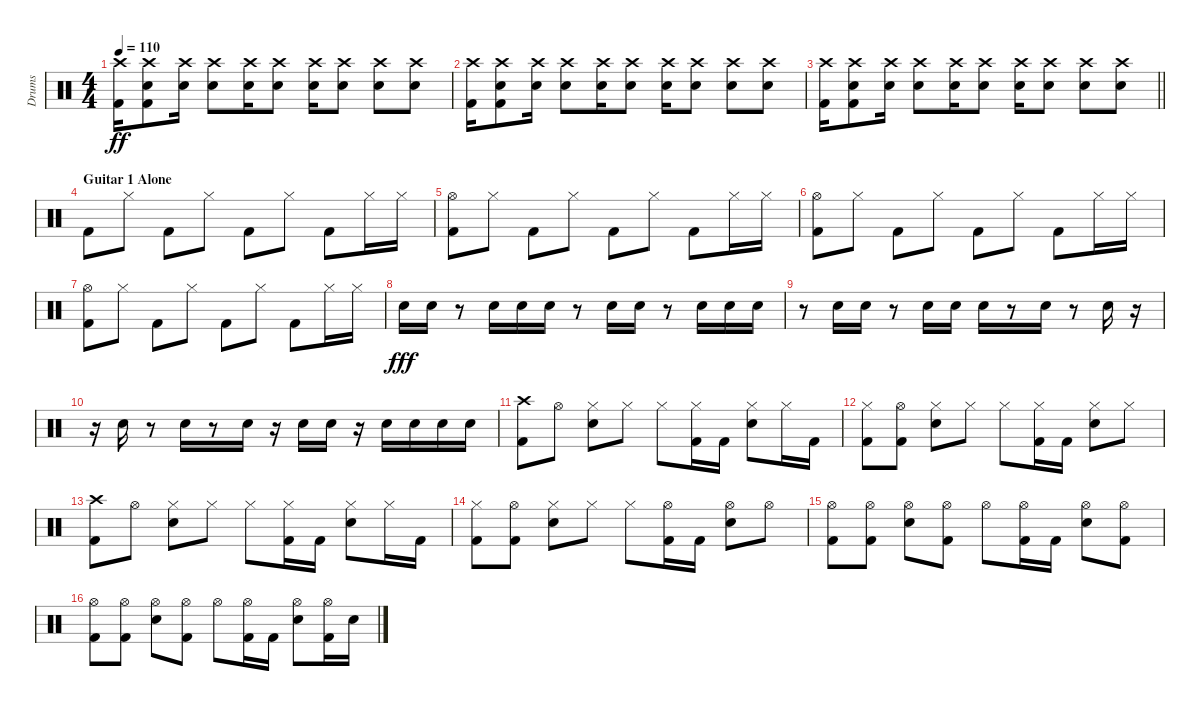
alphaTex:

\track ("Drums" "Drums") {instrument percussion}
\staff {score}
\articulation defaults
\ts (4 4)
\tempo 110
\clef neutral
\ks c
("Crash high (hit)" "Kick (hit) 2").16{dy ff} ("Crash high (hit)" "Snare (hit) 2" "Kick (hit) 2").8 ("Crash high (hit)" "Snare (hit) 2").16 ("Crash high (hit)" "Snare (hit) 2").8 ("Crash high (hit)" "Snare (hit) 2").16 ("Crash high (hit)" "Snare (hit) 2").8 ("Crash high (hit)" "Snare (hit) 2").16 ("Crash high (hit)" "Snare (hit) 2").8 ("Crash high (hit)" "Snare (hit) 2").8 ("Crash high (hit)" "Snare (hit) 2").8 |
("Crash high (hit)" "Kick (hit) 2").16 ("Crash high (hit)" "Snare (hit) 2" "Kick (hit) 2").8 ("Crash high (hit)" "Snare (hit) 2").16 ("Crash high (hit)" "Snare (hit) 2").8 ("Crash high (hit)" "Snare (hit) 2").16 ("Crash high (hit)" "Snare (hit) 2").8 ("Crash high (hit)" "Snare (hit) 2").16 ("Crash high (hit)" "Snare (hit) 2").8 ("Crash high (hit)" "Snare (hit) 2").8 ("Crash high (hit)" "Snare (hit) 2").8 |
\barLineRight lightlight
("Crash high (hit)" "Kick (hit) 2").16 ("Crash high (hit)" "Snare (hit) 2" "Kick (hit) 2").8 ("Crash high (hit)" "Snare (hit) 2").16 ("Crash high (hit)" "Snare (hit) 2").8 ("Crash high (hit)" "Snare (hit) 2").16 ("Crash high (hit)" "Snare (hit) 2").8 ("Crash high (hit)" "Snare (hit) 2").16 ("Crash high (hit)" "Snare (hit) 2").8 ("Crash high (hit)" "Snare (hit) 2").8 ("Crash high (hit)" "Snare (hit) 2").8 |
\section ("" "Guitar 1 Alone")
"Kick (hit) 2".8 "Hi-Hat (closed)".8 "Kick (hit) 2".8 "Hi-Hat (closed)".8 "Kick (hit) 2".8 "Hi-Hat (closed)".8 "Kick (hit) 2".8 "Hi-Hat (closed)".16 "Hi-Hat (closed)".16 |
("Hi-Hat (open)" "Kick (hit) 2").8 "Hi-Hat (closed)".8 "Kick (hit) 2".8 "Hi-Hat (closed)".8 "Kick (hit) 2".8 "Hi-Hat (closed)".8 "Kick (hit) 2".8 "Hi-Hat (closed)".16 "Hi-Hat (closed)".16 |
("Hi-Hat (open)" "Kick (hit) 2").8 "Hi-Hat (closed)".8 "Kick (hit) 2".8 "Hi-Hat (closed)".8 "Kick (hit) 2".8 "Hi-Hat (closed)".8 "Kick (hit) 2".8 "Hi-Hat (closed)".16 "Hi-Hat (closed)".16 |
("Hi-Hat (open)" "Kick (hit) 2").8 "Hi-Hat (closed)".8 "Kick (hit) 2".8 "Hi-Hat (closed)".8 "Kick (hit) 2".8 "Hi-Hat (closed)".8 "Kick (hit) 2".8 "Hi-Hat (closed)".16 "Hi-Hat (closed)".16 |
"Snare (hit) 2".16{dy fff} "Snare (hit) 2".16 r.8 "Snare (hit) 2".16 "Snare (hit) 2".16 "Snare (hit) 2".16 r.8 "Snare (hit) 2".16 "Snare (hit) 2".16 r.8 "Snare (hit) 2".16 "Snare (hit) 2".16 "Snare (hit) 2".16 |
r.8 "Snare (hit) 2".16 "Snare (hit) 2".16 r.8 "Snare (hit) 2".16 "Snare (hit) 2".16 "Snare (hit) 2".16 r.8 "Snare (hit) 2".16 r.8 "Snare (hit) 2".16 r.16 |
r.16 "Snare (hit) 2".16 r.8 "Snare (hit) 2".16 r.8 "Snare (hit) 2".16 r.16 "Snare (hit) 2".16 "Snare (hit) 2".16 r.16 "Snare (hit) 2".16 "Snare (hit) 2".16 "Snare (hit) 2".16 "Snare (hit) 2".16 |
("Crash high (hit)" "Kick (hit) 2").8 "Hi-Hat (open)".8 ("Hi-Hat (closed)" "Snare (hit) 2").8 "Hi-Hat (closed)".8 "Hi-Hat (closed)".8 ("Hi-Hat (closed)" "Kick (hit) 2").16 "Kick (hit) 2".16 ("Hi-Hat (closed)" "Snare (hit) 2").8 "Hi-Hat (closed)".16 "Kick (hit) 2".16 |
("Hi-Hat (closed)" "Kick (hit) 2").8 ("Hi-Hat (open)" "Kick (hit) 2").8 ("Hi-Hat (closed)" "Snare (hit) 2").8 "Hi-Hat (closed)".8 "Hi-Hat (closed)".8 ("Hi-Hat (closed)" "Kick (hit) 2").16 "Kick (hit) 2".16 ("Hi-Hat (closed)" "Snare (hit) 2").8 "Hi-Hat (closed)".8 |
("Crash high (hit)" "Kick (hit) 2").8 "Hi-Hat (open)".8 ("Hi-Hat (closed)" "Snare (hit) 2").8 "Hi-Hat (closed)".8 "Hi-Hat (closed)".8 ("Hi-Hat (closed)" "Kick (hit) 2").16 "Kick (hit) 2".16 ("Hi-Hat (closed)" "Snare (hit) 2").8 "Hi-Hat (closed)".16 "Kick (hit) 2".16 |
("Hi-Hat (closed)" "Kick (hit) 2").8 ("Hi-Hat (open)" "Kick (hit) 2").8 ("Hi-Hat (closed)" "Snare (hit) 2").8 "Hi-Hat (closed)".8 "Hi-Hat (closed)".8 ("Hi-Hat (open)" "Kick (hit) 2").16 "Kick (hit) 2".16 ("Hi-Hat (open)" "Snare (hit) 2").8 "Hi-Hat (open)".8 |
("Hi-Hat (open)" "Kick (hit) 2").8 ("Hi-Hat (open)" "Kick (hit) 2").8 ("Hi-Hat (open)" "Snare (hit) 2").8 ("Hi-Hat (open)" "Kick (hit) 2").8 "Hi-Hat (open)".8 ("Hi-Hat (open)" "Kick (hit) 2").16 "Kick (hit) 2".16 ("Hi-Hat (open)" "Snare (hit) 2").8 ("Hi-Hat (open)" "Kick (hit) 2").8 |
("Hi-Hat (open)" "Kick (hit) 2").8 ("Hi-Hat (open)" "Kick (hit) 2").8 ("Hi-Hat (open)" "Snare (hit) 2").8 ("Hi-Hat (open)" "Kick (hit) 2").8 "Hi-Hat (open)".8 ("Hi-Hat (open)" "Kick (hit) 2").16 "Kick (hit) 2".16 ("Hi-Hat (open)" "Snare (hit) 2").8 ("Hi-Hat (open)" "Kick (hit) 2").16 "Snare (hit) 2".16
